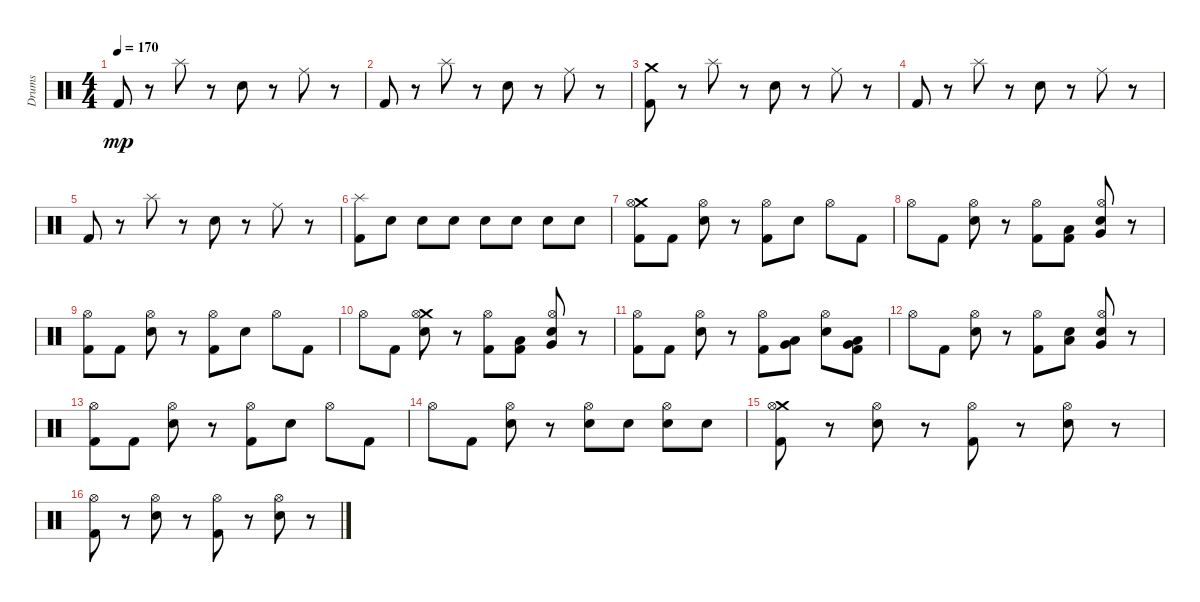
\track ("Drums" "Drums") {instrument percussion}
\staff {score}
\articulation defaults
\ts (4 4)
\tempo 170
\clef neutral
\ks c "Kick (hit) 2".8{dy mp}
r.8 "Splash (hit)".8 r.8 "Electric Snare (hit)".8 r.8 "Ride (middle)".8 r.8 |
"Kick (hit) 2".8 r.8 "Splash (hit)".8 r.8 "Electric Snare (hit)".8 r.8 "Ride (middle)".8 r.8 |
("Kick (hit) 2" "Crash medium (hit)").8 r.8 "Splash (hit)".8 r.8 "Electric Snare (hit)".8 r.8 "Ride (middle)".8 r.8 |
"Kick (hit) 2".8 r.8 "Splash (hit)".8 r.8 "Electric Snare (hit)".8 r.8 "Ride (middle)".8 r.8 |
"Kick (hit) 2".8 r.8 "Splash (hit)".8 r.8 "Electric Snare (hit)".8 r.8 "Ride (middle)".8 r.8 |
("Splash (hit)" "Kick (hit) 2").8 "Electric Snare (hit)".8 "Electric Snare (hit)".8 "Electric Snare (hit)".8 "Electric Snare (hit)".8 "Electric Snare (hit)".8 "Electric Snare (hit)".8 "Electric Snare (hit)".8 |
("Kick (hit) 2" "Crash medium (hit)" "Hi-Hat (open)").8 "Kick (hit) 2".8 ("Electric Snare (hit)" "Hi-Hat (open)").8 r.8 ("Hi-Hat (open)" "Kick (hit) 2").8 "Electric Snare (hit)".8 "Hi-Hat (open)".8 "Kick (hit) 2".8 |
"Hi-Hat (open)".8 "Kick (hit) 2".8 ("Electric Snare (hit)" "Hi-Hat (open)").8 r.8 ("Hi-Hat (open)" "Kick (hit) 2").8 ("Low Tom (hit)" "Kick (hit) 2").8 ("Hi-Hat (open)" "Very Low Tom (hit)" "Electric Snare (hit)").8 r.8 |
("Hi-Hat (open)" "Kick (hit) 2").8 "Kick (hit) 2".8 ("Electric Snare (hit)" "Hi-Hat (open)").8 r.8 ("Kick (hit) 2" "Hi-Hat (open)").8 "Electric Snare (hit)".8 "Hi-Hat (open)".8 "Kick (hit) 2".8 |
"Hi-Hat (open)".8 "Kick (hit) 2".8 ("Electric Snare (hit)" "Crash medium (hit)" "Hi-Hat (open)").8 r.8 ("Kick (hit) 2" "Hi-Hat (open)").8 ("Low Tom (hit)" "Kick (hit) 2").8 ("Hi-Hat (open)" "Very Low Tom (hit)" "Electric Snare (hit)").8 r.8 |
("Hi-Hat (open)" "Kick (hit) 2").8 "Kick (hit) 2".8 ("Hi-Hat (open)" "Electric Snare (hit)").8 r.8 ("Kick (hit) 2" "Hi-Hat (open)").8 ("Very Low Tom (hit)" "Low Floor Tom (hit)").8 ("Electric Snare (hit)" "Hi-Hat (open)").8 ("Very Low Tom (hit)" "Low Floor Tom (hit)" "Kick (hit) 2").8 |
"Hi-Hat (open)".8 "Kick (hit) 2".8 ("Electric Snare (hit)" "Hi-Hat (open)").8 r.8 ("Kick (hit) 2" "Hi-Hat (open)").8 ("Low Tom (hit)" "Electric Snare (hit)").8 ("Hi-Hat (open)" "Very Low Tom (hit)" "Electric Snare (hit)").8 r.8 |
("Hi-Hat (open)" "Kick (hit) 2").8 "Kick (hit) 2".8 ("Hi-Hat (open)" "Electric Snare (hit)").8 r.8 ("Kick (hit) 2" "Hi-Hat (open)").8 "Electric Snare (hit)".8 "Hi-Hat (open)".8 "Kick (hit) 2".8 |
"Hi-Hat (open)".8 "Kick (hit) 2".8 ("Electric Snare (hit)" "Hi-Hat (open)").8 r.8 ("Hi-Hat (open)" "Electric Snare (hit)").8 "Electric Snare (hit)".8 ("Hi-Hat (open)" "Electric Snare (hit)").8 "Electric Snare (hit)".8 |
("Kick (hit) 2" "Crash medium (hit)" "Hi-Hat (open)").8 r.8 ("Electric Snare (hit)" "Hi-Hat (open)").8 r.8 ("Kick (hit) 2" "Hi-Hat (open)").8 r.8 ("Electric Snare (hit)" "Hi-Hat (open)").8 r.8 |
("Kick (hit) 2" "Hi-Hat (open)").8 r.8 ("Electric Snare (hit)" "Hi-Hat (open)").8 r.8 ("Hi-Hat (open)" "Kick (hit) 2").8 r.8 ("Electric Snare (hit)" "Hi-Hat (open)").8 r.8
